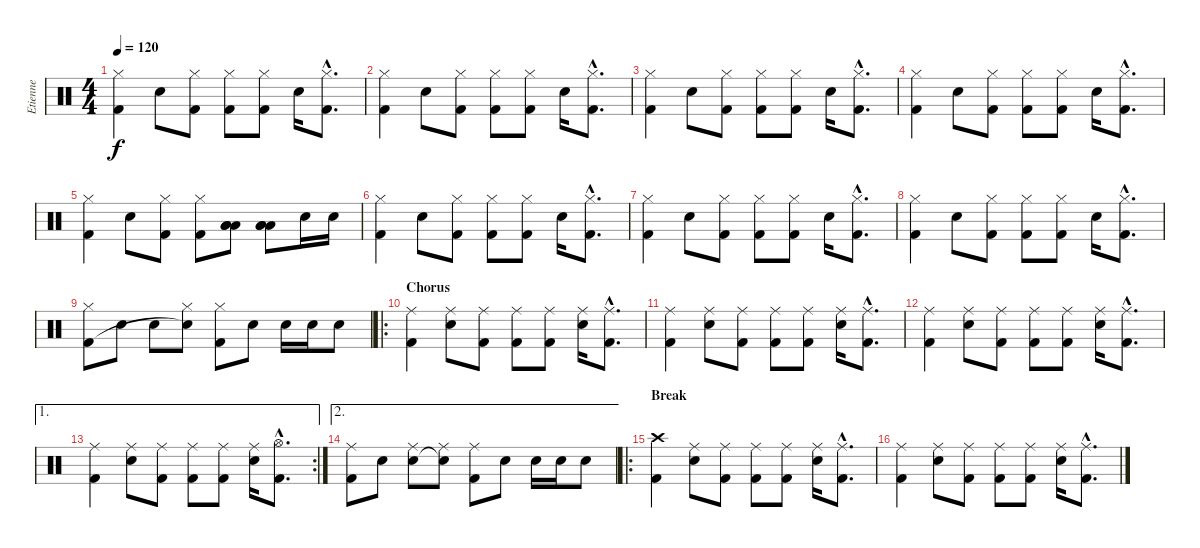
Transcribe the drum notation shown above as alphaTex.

\track ("Etienne" "Etienne") {instrument percussion}
\staff {score}
\articulation defaults
\ts (4 4)
\tempo 120
\clef neutral
\ks c
("Hi-Hat (closed)" "Kick (hit) 2").4{dy f} "Snare (hit) 2".8 ("Hi-Hat (closed)" "Kick (hit) 2").8 ("Hi-Hat (closed)" "Kick (hit) 2").8 ("Hi-Hat (closed)" "Kick (hit) 2").8 "Snare (hit) 2".16 ("Hi-Hat (closed)"{hac} "Kick (hit) 2"{hac}).8{d} |
("Hi-Hat (closed)" "Kick (hit) 2").4 "Snare (hit) 2".8 ("Hi-Hat (closed)" "Kick (hit) 2").8 ("Hi-Hat (closed)" "Kick (hit) 2").8 ("Hi-Hat (closed)" "Kick (hit) 2").8 "Snare (hit) 2".16 ("Hi-Hat (closed)"{hac} "Kick (hit) 2"{hac}).8{d} |
("Hi-Hat (closed)" "Kick (hit) 2").4 "Snare (hit) 2".8 ("Hi-Hat (closed)" "Kick (hit) 2").8 ("Hi-Hat (closed)" "Kick (hit) 2").8 ("Hi-Hat (closed)" "Kick (hit) 2").8 "Snare (hit) 2".16 ("Hi-Hat (closed)"{hac} "Kick (hit) 2"{hac}).8{d} |
("Hi-Hat (closed)" "Kick (hit) 2").4 "Snare (hit) 2".8 ("Hi-Hat (closed)" "Kick (hit) 2").8 ("Hi-Hat (closed)" "Kick (hit) 2").8 ("Hi-Hat (closed)" "Kick (hit) 2").8 "Snare (hit) 2".16 ("Hi-Hat (closed)"{hac} "Kick (hit) 2"{hac}).8{d} |
("Hi-Hat (closed)" "Kick (hit) 2").4 "Snare (hit) 2".8 ("Hi-Hat (closed)" "Kick (hit) 2").8 ("Hi-Hat (closed)" "Kick (hit) 2").8 ("Low Tom (hit)" "Low Tom (hit)" "Low Tom (hit)").8 ("Low Tom (hit)" "Low Tom (hit)" "Low Tom (hit)").8 "Snare (hit) 2".16 "Snare (hit) 2".16 |
("Hi-Hat (closed)" "Kick (hit) 2").4 "Snare (hit) 2".8 ("Hi-Hat (closed)" "Kick (hit) 2").8 ("Hi-Hat (closed)" "Kick (hit) 2").8 ("Hi-Hat (closed)" "Kick (hit) 2").8 "Snare (hit) 2".16 ("Hi-Hat (closed)"{hac} "Kick (hit) 2"{hac}).8{d} |
("Hi-Hat (closed)" "Kick (hit) 2").4 "Snare (hit) 2".8 ("Hi-Hat (closed)" "Kick (hit) 2").8 ("Hi-Hat (closed)" "Kick (hit) 2").8 ("Hi-Hat (closed)" "Kick (hit) 2").8 "Snare (hit) 2".16 ("Hi-Hat (closed)"{hac} "Kick (hit) 2"{hac}).8{d} |
("Hi-Hat (closed)" "Kick (hit) 2").4 "Snare (hit) 2".8 ("Hi-Hat (closed)" "Kick (hit) 2").8 ("Hi-Hat (closed)" "Kick (hit) 2").8 ("Hi-Hat (closed)" "Kick (hit) 2").8 "Snare (hit) 2".16 ("Hi-Hat (closed)"{hac} "Kick (hit) 2"{hac}).8{d} |
("Hi-Hat (closed)" "Kick (hit) 2").8 "Snare (hit) 2".8 "Snare (hit) 2".8 ("Hi-Hat (closed)" "Snare (hit)"{t}).8 ("Hi-Hat (closed)" "Kick (hit) 2").8 "Snare (hit) 2".8 "Snare (hit) 2".16 "Snare (hit) 2".16 "Snare (hit) 2".8 |
\ro
\section ("" "Chorus")
("Ride (middle)" "Kick (hit) 2").4 ("Ride (middle)" "Snare (hit) 2").8 ("Ride (middle)" "Kick (hit) 2").8 ("Ride (middle)" "Kick (hit) 2").8 ("Ride (middle)" "Kick (hit) 2").8 ("Ride (middle)" "Snare (hit) 2").16 ("Ride (middle)"{hac} "Kick (hit) 2"{hac}).8{d} |
("Ride (middle)" "Kick (hit) 2").4 ("Ride (middle)" "Snare (hit) 2").8 ("Ride (middle)" "Kick (hit) 2").8 ("Ride (middle)" "Kick (hit) 2").8 ("Ride (middle)" "Kick (hit) 2").8 ("Ride (middle)" "Snare (hit) 2").16 ("Ride (middle)"{hac} "Kick (hit) 2"{hac}).8{d} |
("Ride (middle)" "Kick (hit) 2").4 ("Ride (middle)" "Snare (hit) 2").8 ("Ride (middle)" "Kick (hit) 2").8 ("Ride (middle)" "Kick (hit) 2").8 ("Ride (middle)" "Kick (hit) 2").8 ("Ride (middle)" "Snare (hit) 2").16 ("Ride (middle)"{hac} "Kick (hit) 2"{hac}).8{d} |
\ae 1
\rc 2
("Ride (middle)" "Kick (hit) 2").4 ("Ride (middle)" "Snare (hit) 2").8 ("Ride (middle)" "Kick (hit) 2").8 ("Ride (middle)" "Kick (hit) 2").8 ("Ride (middle)" "Kick (hit) 2").8 ("Ride (middle)" "Snare (hit) 2").16 ("Hi-Hat (open)"{hac} "Kick (hit) 2"{hac}).8{d} |
\ae 2
("Ride (middle)" "Kick (hit) 2").8 "Snare (hit) 2".8 ("Ride (middle)" "Snare (hit) 2").8 ("Ride (middle)" "Snare (hit)"{t}).8 ("Ride (middle)" "Kick (hit) 2").8 "Snare (hit) 2".8 "Snare (hit) 2".16 "Snare (hit) 2".16 "Snare (hit) 2".8 |
\ro
\section ("" "Break")
("Crash high (hit)" "Kick (hit) 2").4 ("Ride (middle)" "Snare (hit) 2").8 ("Ride (middle)" "Kick (hit) 2").8 ("Ride (middle)" "Kick (hit) 2").8 ("Ride (middle)" "Kick (hit) 2").8 ("Ride (middle)" "Snare (hit) 2").16 ("Ride (middle)"{hac} "Kick (hit) 2"{hac}).8{d} |
("Ride (middle)" "Kick (hit) 2").4 ("Ride (middle)" "Snare (hit) 2").8 ("Ride (middle)" "Kick (hit) 2").8 ("Ride (middle)" "Kick (hit) 2").8 ("Ride (middle)" "Kick (hit) 2").8 ("Ride (middle)" "Snare (hit) 2").16 ("Ride (middle)"{hac} "Kick (hit) 2"{hac}).8{d}
